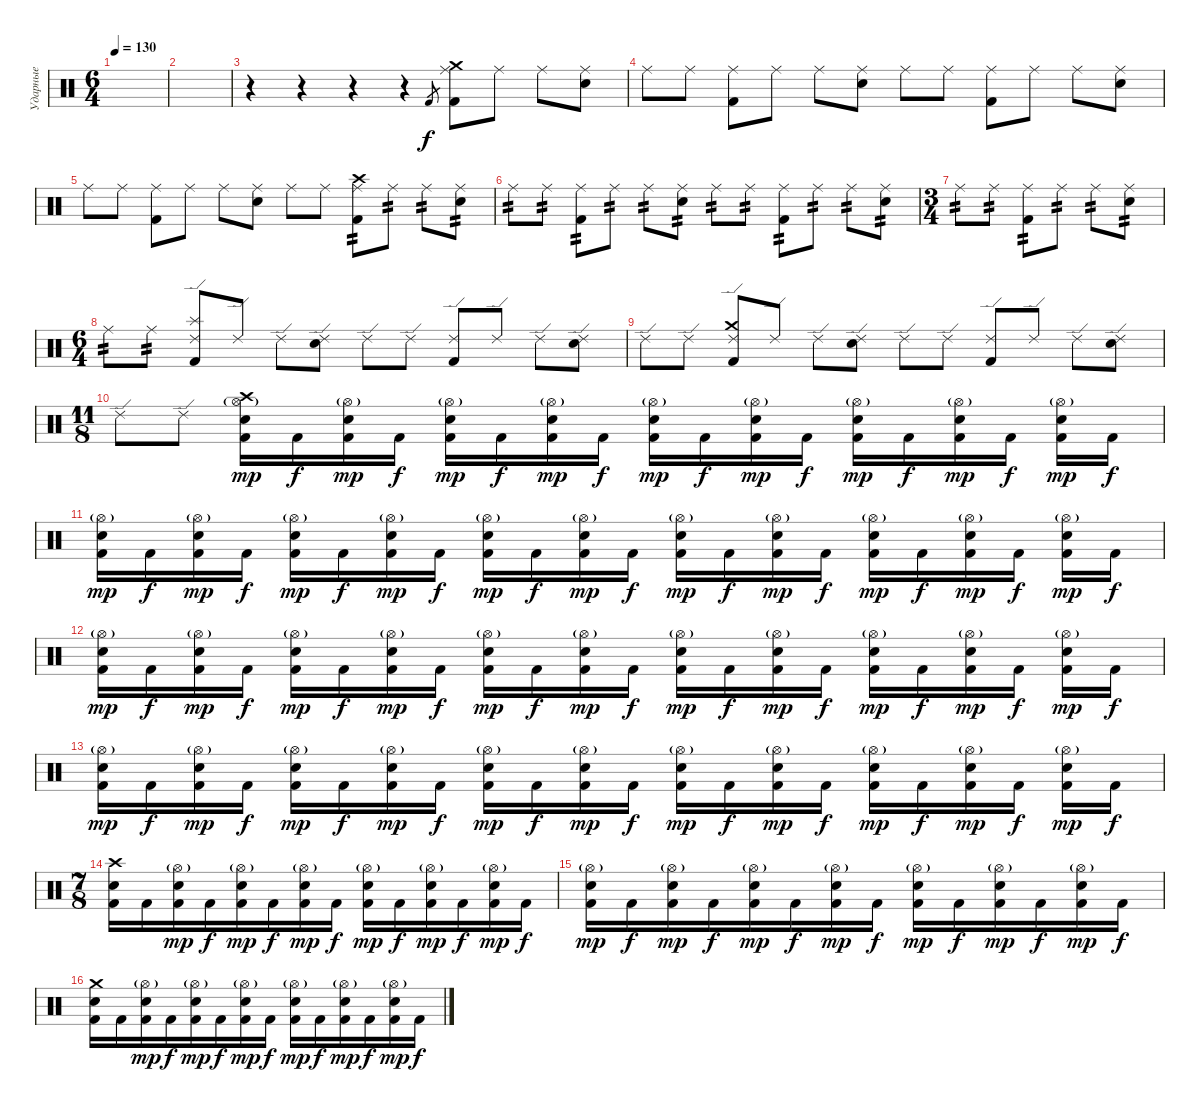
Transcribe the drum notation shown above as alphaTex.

\track ("Ударные" "Ударные") {instrument percussion}
\staff {score}
\articulation defaults
\ts (6 4)
\tempo 130
\clef neutral
\ks c
|
|
r.4 r.4 r.4 r.4 "Kick (hit) 2".8{gr} ("Crash medium (hit)" "Ride (middle)" "Kick (hit) 2").8 "Ride (middle)".8 "Ride (middle)".8 ("Electric Snare (hit)" "Ride (middle)").8 |
"Ride (middle)".8 "Ride (middle)".8 ("Ride (middle)" "Kick (hit) 2").8 "Ride (middle)".8 "Ride (middle)".8 ("Electric Snare (hit)" "Ride (middle)").8 "Ride (middle)".8 "Ride (middle)".8 ("Ride (middle)" "Kick (hit) 2").8 "Ride (middle)".8 "Ride (middle)".8 ("Electric Snare (hit)" "Ride (middle)").8 |
"Ride (middle)".8 "Ride (middle)".8 ("Ride (middle)" "Kick (hit) 2").8 "Ride (middle)".8 "Ride (middle)".8 ("Electric Snare (hit)" "Ride (middle)").8 "Ride (middle)".8 "Ride (middle)".8 ("Crash high (hit)" "Ride (middle)" "Kick (hit) 2").8{tp 2} "Ride (middle)".8{tp 2} "Ride (middle)".8{tp 2} ("Electric Snare (hit)" "Ride (middle)").8{tp 2} |
"Ride (middle)".8{tp 2} "Ride (middle)".8{tp 2} ("Ride (middle)" "Kick (hit) 2").8{tp 2} "Ride (middle)".8{tp 2} "Ride (middle)".8{tp 2} ("Electric Snare (hit)" "Ride (middle)").8{tp 2} "Ride (middle)".8{tp 2} "Ride (middle)".8{tp 2} ("Ride (middle)" "Kick (hit) 2").8{tp 2} "Ride (middle)".8{tp 2} "Ride (middle)".8{tp 2} ("Electric Snare (hit)" "Ride (middle)").8{tp 2} |
\ts (3 4)
"Ride (middle)".8{tp 2} "Ride (middle)".8{tp 2} ("Ride (middle)" "Kick (hit) 2").8{tp 2} "Ride (middle)".8{tp 2} "Ride (middle)".8{tp 2} ("Electric Snare (hit)" "Ride (middle)").8{tp 2} |
\ts (6 4)
"Ride (middle)".8{tp 2} "Ride (middle)".8{tp 2} ("Splash (hit)" "Ride (edge) 2" "Kick (hit) 2").8 "Ride (edge) 2".8 "Ride (edge) 2".8 ("Electric Snare (hit)" "Ride (edge) 2").8 "Ride (edge) 2".8 "Ride (edge) 2".8 ("Ride (edge) 2" "Kick (hit) 2").8 "Ride (edge) 2".8 "Ride (edge) 2".8 ("Electric Snare (hit)" "Ride (edge) 2").8 |
"Ride (edge) 2".8 "Ride (edge) 2".8 ("Crash medium (hit)" "Ride (edge) 2" "Kick (hit) 2").8 "Ride (edge) 2".8 "Ride (edge) 2".8 ("Electric Snare (hit)" "Ride (edge) 2").8 "Ride (edge) 2".8 "Ride (edge) 2".8 ("Ride (edge) 2" "Kick (hit) 2").8 "Ride (edge) 2".8 "Ride (edge) 2".8 ("Electric Snare (hit)" "Ride (edge) 2").8 |
\ts (11 8)
"Ride (edge) 2".8 "Ride (edge) 2".8 ("Crash high (hit)" "Electric Snare (hit)" "Hi-Hat (open)"{g} "Kick (hit) 2").16{dy mp} "Kick (hit) 2".16{dy f} ("Electric Snare (hit)" "Hi-Hat (open)"{g} "Kick (hit) 2").16{dy mp} "Kick (hit) 2".16{dy f} ("Electric Snare (hit)" "Hi-Hat (open)"{g} "Kick (hit) 2").16{dy mp} "Kick (hit) 2".16{dy f} ("Electric Snare (hit)" "Hi-Hat (open)"{g} "Kick (hit) 2").16{dy mp} "Kick (hit) 2".16{dy f} ("Electric Snare (hit)" "Hi-Hat (open)"{g} "Kick (hit) 2").16{dy mp} "Kick (hit) 2".16{dy f} ("Electric Snare (hit)" "Hi-Hat (open)"{g} "Kick (hit) 2").16{dy mp} "Kick (hit) 2".16{dy f} ("Electric Snare (hit)" "Hi-Hat (open)"{g} "Kick (hit) 2").16{dy mp} "Kick (hit) 2".16{dy f} ("Electric Snare (hit)" "Hi-Hat (open)"{g} "Kick (hit) 2").16{dy mp} "Kick (hit) 2".16{dy f} ("Electric Snare (hit)" "Hi-Hat (open)"{g} "Kick (hit) 2").16{dy mp} "Kick (hit) 2".16{dy f} |
("Electric Snare (hit)" "Hi-Hat (open)"{g} "Kick (hit) 2").16{dy mp} "Kick (hit) 2".16{dy f} ("Electric Snare (hit)" "Hi-Hat (open)"{g} "Kick (hit) 2").16{dy mp} "Kick (hit) 2".16{dy f} ("Electric Snare (hit)" "Hi-Hat (open)"{g} "Kick (hit) 2").16{dy mp} "Kick (hit) 2".16{dy f} ("Electric Snare (hit)" "Hi-Hat (open)"{g} "Kick (hit) 2").16{dy mp} "Kick (hit) 2".16{dy f} ("Electric Snare (hit)" "Hi-Hat (open)"{g} "Kick (hit) 2").16{dy mp} "Kick (hit) 2".16{dy f} ("Electric Snare (hit)" "Hi-Hat (open)"{g} "Kick (hit) 2").16{dy mp} "Kick (hit) 2".16{dy f} ("Electric Snare (hit)" "Hi-Hat (open)"{g} "Kick (hit) 2").16{dy mp} "Kick (hit) 2".16{dy f} ("Electric Snare (hit)" "Hi-Hat (open)"{g} "Kick (hit) 2").16{dy mp} "Kick (hit) 2".16{dy f} ("Electric Snare (hit)" "Hi-Hat (open)"{g} "Kick (hit) 2").16{dy mp} "Kick (hit) 2".16{dy f} ("Electric Snare (hit)" "Hi-Hat (open)"{g} "Kick (hit) 2").16{dy mp} "Kick (hit) 2".16{dy f} ("Electric Snare (hit)" "Hi-Hat (open)"{g} "Kick (hit) 2").16{dy mp} "Kick (hit) 2".16{dy f} |
("Electric Snare (hit)" "Hi-Hat (open)"{g} "Kick (hit) 2").16{dy mp} "Kick (hit) 2".16{dy f} ("Electric Snare (hit)" "Hi-Hat (open)"{g} "Kick (hit) 2").16{dy mp} "Kick (hit) 2".16{dy f} ("Electric Snare (hit)" "Hi-Hat (open)"{g} "Kick (hit) 2").16{dy mp} "Kick (hit) 2".16{dy f} ("Electric Snare (hit)" "Hi-Hat (open)"{g} "Kick (hit) 2").16{dy mp} "Kick (hit) 2".16{dy f} ("Electric Snare (hit)" "Hi-Hat (open)"{g} "Kick (hit) 2").16{dy mp} "Kick (hit) 2".16{dy f} ("Electric Snare (hit)" "Hi-Hat (open)"{g} "Kick (hit) 2").16{dy mp} "Kick (hit) 2".16{dy f} ("Electric Snare (hit)" "Hi-Hat (open)"{g} "Kick (hit) 2").16{dy mp} "Kick (hit) 2".16{dy f} ("Electric Snare (hit)" "Hi-Hat (open)"{g} "Kick (hit) 2").16{dy mp} "Kick (hit) 2".16{dy f} ("Electric Snare (hit)" "Hi-Hat (open)"{g} "Kick (hit) 2").16{dy mp} "Kick (hit) 2".16{dy f} ("Electric Snare (hit)" "Hi-Hat (open)"{g} "Kick (hit) 2").16{dy mp} "Kick (hit) 2".16{dy f} ("Electric Snare (hit)" "Hi-Hat (open)"{g} "Kick (hit) 2").16{dy mp} "Kick (hit) 2".16{dy f} |
("Electric Snare (hit)" "Hi-Hat (open)"{g} "Kick (hit) 2").16{dy mp} "Kick (hit) 2".16{dy f} ("Electric Snare (hit)" "Hi-Hat (open)"{g} "Kick (hit) 2").16{dy mp} "Kick (hit) 2".16{dy f} ("Electric Snare (hit)" "Hi-Hat (open)"{g} "Kick (hit) 2").16{dy mp} "Kick (hit) 2".16{dy f} ("Electric Snare (hit)" "Hi-Hat (open)"{g} "Kick (hit) 2").16{dy mp} "Kick (hit) 2".16{dy f} ("Electric Snare (hit)" "Hi-Hat (open)"{g} "Kick (hit) 2").16{dy mp} "Kick (hit) 2".16{dy f} ("Electric Snare (hit)" "Hi-Hat (open)"{g} "Kick (hit) 2").16{dy mp} "Kick (hit) 2".16{dy f} ("Electric Snare (hit)" "Hi-Hat (open)"{g} "Kick (hit) 2").16{dy mp} "Kick (hit) 2".16{dy f} ("Electric Snare (hit)" "Hi-Hat (open)"{g} "Kick (hit) 2").16{dy mp} "Kick (hit) 2".16{dy f} ("Electric Snare (hit)" "Hi-Hat (open)"{g} "Kick (hit) 2").16{dy mp} "Kick (hit) 2".16{dy f} ("Electric Snare (hit)" "Hi-Hat (open)"{g} "Kick (hit) 2").16{dy mp} "Kick (hit) 2".16{dy f} ("Electric Snare (hit)" "Hi-Hat (open)"{g} "Kick (hit) 2").16{dy mp} "Kick (hit) 2".16{dy f} |
\ts (7 8)
("Electric Snare (hit)" "Crash high (hit)" "Kick (hit) 2").16 "Kick (hit) 2".16 ("Electric Snare (hit)" "Hi-Hat (open)"{g} "Kick (hit) 2").16{dy mp} "Kick (hit) 2".16{dy f} ("Electric Snare (hit)" "Hi-Hat (open)"{g} "Kick (hit) 2").16{dy mp} "Kick (hit) 2".16{dy f} ("Electric Snare (hit)" "Hi-Hat (open)"{g} "Kick (hit) 2").16{dy mp} "Kick (hit) 2".16{dy f} ("Electric Snare (hit)" "Hi-Hat (open)"{g} "Kick (hit) 2").16{dy mp} "Kick (hit) 2".16{dy f} ("Electric Snare (hit)" "Hi-Hat (open)"{g} "Kick (hit) 2").16{dy mp} "Kick (hit) 2".16{dy f} ("Electric Snare (hit)" "Hi-Hat (open)"{g} "Kick (hit) 2").16{dy mp} "Kick (hit) 2".16{dy f} |
("Electric Snare (hit)" "Hi-Hat (open)"{g} "Kick (hit) 2").16{dy mp} "Kick (hit) 2".16{dy f} ("Electric Snare (hit)" "Hi-Hat (open)"{g} "Kick (hit) 2").16{dy mp} "Kick (hit) 2".16{dy f} ("Electric Snare (hit)" "Hi-Hat (open)"{g} "Kick (hit) 2").16{dy mp} "Kick (hit) 2".16{dy f} ("Electric Snare (hit)" "Hi-Hat (open)"{g} "Kick (hit) 2").16{dy mp} "Kick (hit) 2".16{dy f} ("Electric Snare (hit)" "Hi-Hat (open)"{g} "Kick (hit) 2").16{dy mp} "Kick (hit) 2".16{dy f} ("Electric Snare (hit)" "Hi-Hat (open)"{g} "Kick (hit) 2").16{dy mp} "Kick (hit) 2".16{dy f} ("Electric Snare (hit)" "Hi-Hat (open)"{g} "Kick (hit) 2").16{dy mp} "Kick (hit) 2".16{dy f} |
("Electric Snare (hit)" "Crash medium (hit)" "Kick (hit) 2").16 "Kick (hit) 2".16 ("Electric Snare (hit)" "Hi-Hat (open)"{g} "Kick (hit) 2").16{dy mp} "Kick (hit) 2".16{dy f} ("Electric Snare (hit)" "Hi-Hat (open)"{g} "Kick (hit) 2").16{dy mp} "Kick (hit) 2".16{dy f} ("Electric Snare (hit)" "Hi-Hat (open)"{g} "Kick (hit) 2").16{dy mp} "Kick (hit) 2".16{dy f} ("Electric Snare (hit)" "Hi-Hat (open)"{g} "Kick (hit) 2").16{dy mp} "Kick (hit) 2".16{dy f} ("Electric Snare (hit)" "Hi-Hat (open)"{g} "Kick (hit) 2").16{dy mp} "Kick (hit) 2".16{dy f} ("Electric Snare (hit)" "Hi-Hat (open)"{g} "Kick (hit) 2").16{dy mp} "Kick (hit) 2".16{dy f}
